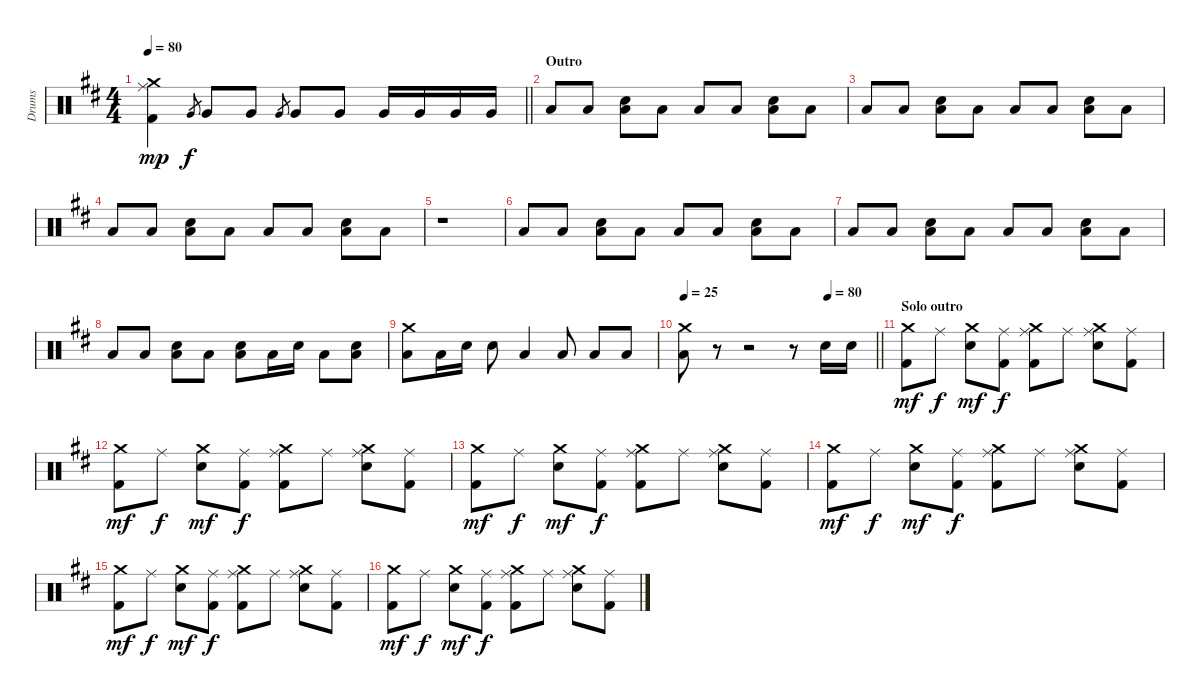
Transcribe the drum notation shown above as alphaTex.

\track ("Drums" "Drums") {instrument percussion}
\staff {score}
\articulation defaults
\ts (4 4)
\tempo 80
\clef neutral
\barLineRight lightlight
\ks d
("Crash medium (hit)" "Ride (middle)" "Kick (hit) 2").4{dy mp} "Very Low Tom (hit)".8{gr dy f} "Very Low Tom (hit)".8 "Very Low Tom (hit)".8 "Very Low Tom (hit)"{h}.8{gr} "Very Low Tom (hit)".8 "Very Low Tom (hit)".8 "Very Low Tom (hit)".16 "Very Low Tom (hit)".16 "Very Low Tom (hit)".16 "Very Low Tom (hit)".16 |
\section ("" "Outro")
"Low Floor Tom (hit)".8 "Low Floor Tom (hit)".8 ("Low Tom (hit)" "Snare (hit) 2").8 "Low Floor Tom (hit)".8 "Low Floor Tom (hit)".8 "Low Floor Tom (hit)".8 ("Low Tom (hit)" "Snare (hit) 2").8 "Low Floor Tom (hit)".8 |
"Low Floor Tom (hit)".8 "Low Floor Tom (hit)".8 ("Low Tom (hit)" "Snare (hit) 2").8 "Low Floor Tom (hit)".8 "Low Floor Tom (hit)".8 "Low Floor Tom (hit)".8 ("Low Tom (hit)" "Snare (hit) 2").8 "Low Floor Tom (hit)".8 |
"Low Floor Tom (hit)".8 "Low Floor Tom (hit)".8 ("Low Tom (hit)" "Snare (hit) 2").8 "Low Floor Tom (hit)".8 "Low Floor Tom (hit)".8 "Low Floor Tom (hit)".8 ("Low Tom (hit)" "Snare (hit) 2").8 "Low Floor Tom (hit)".8 |
r.1 |
"Low Floor Tom (hit)".8 "Low Floor Tom (hit)".8 ("Low Tom (hit)" "Snare (hit) 2").8 "Low Floor Tom (hit)".8 "Low Floor Tom (hit)".8 "Low Floor Tom (hit)".8 ("Low Tom (hit)" "Snare (hit) 2").8 "Low Floor Tom (hit)".8 |
"Low Floor Tom (hit)".8 "Low Floor Tom (hit)".8 ("Low Tom (hit)" "Snare (hit) 2").8 "Low Floor Tom (hit)".8 "Low Floor Tom (hit)".8 "Low Floor Tom (hit)".8 ("Low Tom (hit)" "Snare (hit) 2").8 "Low Floor Tom (hit)".8 |
"Low Floor Tom (hit)".8 "Low Floor Tom (hit)".8 ("Low Tom (hit)" "Snare (hit) 2").8 "Low Floor Tom (hit)".8 ("Low Floor Tom (hit)" "Snare (hit) 2").8 "Low Floor Tom (hit)".16 "Snare (hit) 2".16 "Low Tom (hit)".8 ("Low Floor Tom (hit)" "Snare (hit) 2").8 |
("Crash medium (hit)" "Low Floor Tom (hit)").8 "Low Floor Tom (hit)".16 "Snare (hit) 2".16 "Snare (hit) 2".8 "Low Floor Tom (hit)".4 "Low Floor Tom (hit)".8 "Low Floor Tom (hit)".8 "Low Floor Tom (hit)".8 |
\tempo 25
\tempo (80 0.75)
\barLineRight lightlight
("Crash medium (hit)" "Low Floor Tom (hit)").8 r.8 r.2 r.8 "Snare (hit) 2".16 "Snare (hit) 2".16 |
\section ("" "Solo outro")
("Crash medium (hit)" "Kick (hit) 2").8{dy mf} "Ride (middle)".8{dy f} ("Crash medium (hit)" "Snare (hit) 2").8{dy mf} ("Ride (middle)" "Kick (hit) 2").8{dy f} ("Crash medium (hit)" "Ride (middle)" "Kick (hit) 2").8 "Ride (middle)".8 ("Crash medium (hit)" "Ride (middle)" "Snare (hit) 2").8 ("Ride (middle)" "Kick (hit) 2").8 |
("Crash medium (hit)" "Kick (hit) 2").8{dy mf} "Ride (middle)".8{dy f} ("Crash medium (hit)" "Snare (hit) 2").8{dy mf} ("Ride (middle)" "Kick (hit) 2").8{dy f} ("Crash medium (hit)" "Ride (middle)" "Kick (hit) 2").8 "Ride (middle)".8 ("Crash medium (hit)" "Ride (middle)" "Snare (hit) 2").8 ("Ride (middle)" "Kick (hit) 2").8 |
("Crash medium (hit)" "Kick (hit) 2").8{dy mf} "Ride (middle)".8{dy f} ("Crash medium (hit)" "Snare (hit) 2").8{dy mf} ("Ride (middle)" "Kick (hit) 2").8{dy f} ("Crash medium (hit)" "Ride (middle)" "Kick (hit) 2").8 "Ride (middle)".8 ("Crash medium (hit)" "Ride (middle)" "Snare (hit) 2").8 ("Ride (middle)" "Kick (hit) 2").8 |
("Crash medium (hit)" "Kick (hit) 2").8{dy mf} "Ride (middle)".8{dy f} ("Crash medium (hit)" "Snare (hit) 2").8{dy mf} ("Ride (middle)" "Kick (hit) 2").8{dy f} ("Crash medium (hit)" "Ride (middle)" "Kick (hit) 2").8 "Ride (middle)".8 ("Crash medium (hit)" "Ride (middle)" "Snare (hit) 2").8 ("Ride (middle)" "Kick (hit) 2").8 |
("Crash medium (hit)" "Kick (hit) 2").8{dy mf} "Ride (middle)".8{dy f} ("Crash medium (hit)" "Snare (hit) 2").8{dy mf} ("Ride (middle)" "Kick (hit) 2").8{dy f} ("Crash medium (hit)" "Ride (middle)" "Kick (hit) 2").8 "Ride (middle)".8 ("Crash medium (hit)" "Ride (middle)" "Snare (hit) 2").8 ("Ride (middle)" "Kick (hit) 2").8 |
("Crash medium (hit)" "Kick (hit) 2").8{dy mf} "Ride (middle)".8{dy f} ("Crash medium (hit)" "Snare (hit) 2").8{dy mf} ("Ride (middle)" "Kick (hit) 2").8{dy f} ("Crash medium (hit)" "Ride (middle)" "Kick (hit) 2").8 "Ride (middle)".8 ("Crash medium (hit)" "Ride (middle)" "Snare (hit) 2").8 ("Ride (middle)" "Kick (hit) 2").8
